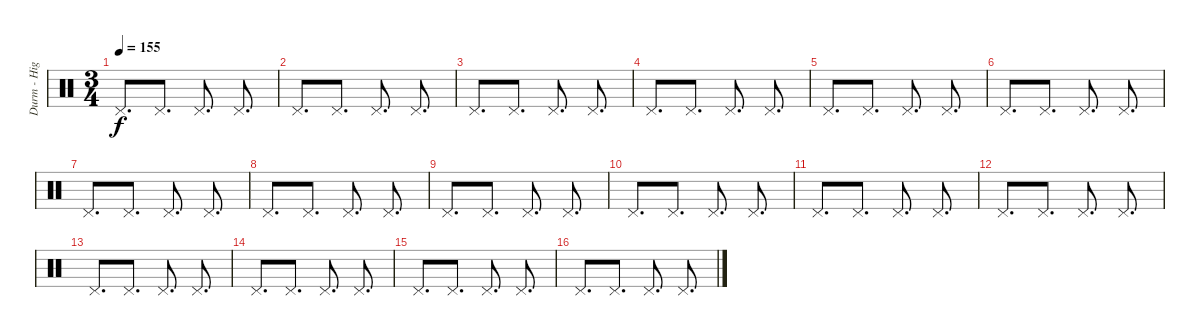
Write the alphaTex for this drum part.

\track ("Durm - High Hat" "Durm - Hig") {instrument percussion}
\staff {score}
\articulation defaults
\ts (3 4)
\tempo 155
\clef neutral
\ks c "Pedal Hi-Hat (hit)".8{d dy f} "Pedal Hi-Hat (hit)".8{d} "Pedal Hi-Hat (hit)".8{d} "Pedal Hi-Hat (hit)".8{d}
|
"Pedal Hi-Hat (hit)".8{d} "Pedal Hi-Hat (hit)".8{d} "Pedal Hi-Hat (hit)".8{d} "Pedal Hi-Hat (hit)".8{d} |
"Pedal Hi-Hat (hit)".8{d} "Pedal Hi-Hat (hit)".8{d} "Pedal Hi-Hat (hit)".8{d} "Pedal Hi-Hat (hit)".8{d} |
"Pedal Hi-Hat (hit)".8{d} "Pedal Hi-Hat (hit)".8{d} "Pedal Hi-Hat (hit)".8{d} "Pedal Hi-Hat (hit)".8{d} |
"Pedal Hi-Hat (hit)".8{d} "Pedal Hi-Hat (hit)".8{d} "Pedal Hi-Hat (hit)".8{d} "Pedal Hi-Hat (hit)".8{d} |
"Pedal Hi-Hat (hit)".8{d} "Pedal Hi-Hat (hit)".8{d} "Pedal Hi-Hat (hit)".8{d} "Pedal Hi-Hat (hit)".8{d} |
"Pedal Hi-Hat (hit)".8{d} "Pedal Hi-Hat (hit)".8{d} "Pedal Hi-Hat (hit)".8{d} "Pedal Hi-Hat (hit)".8{d} |
"Pedal Hi-Hat (hit)".8{d} "Pedal Hi-Hat (hit)".8{d} "Pedal Hi-Hat (hit)".8{d} "Pedal Hi-Hat (hit)".8{d} |
"Pedal Hi-Hat (hit)".8{d} "Pedal Hi-Hat (hit)".8{d} "Pedal Hi-Hat (hit)".8{d} "Pedal Hi-Hat (hit)".8{d} |
"Pedal Hi-Hat (hit)".8{d} "Pedal Hi-Hat (hit)".8{d} "Pedal Hi-Hat (hit)".8{d} "Pedal Hi-Hat (hit)".8{d} |
"Pedal Hi-Hat (hit)".8{d} "Pedal Hi-Hat (hit)".8{d} "Pedal Hi-Hat (hit)".8{d} "Pedal Hi-Hat (hit)".8{d} |
"Pedal Hi-Hat (hit)".8{d} "Pedal Hi-Hat (hit)".8{d} "Pedal Hi-Hat (hit)".8{d} "Pedal Hi-Hat (hit)".8{d} |
"Pedal Hi-Hat (hit)".8{d} "Pedal Hi-Hat (hit)".8{d} "Pedal Hi-Hat (hit)".8{d} "Pedal Hi-Hat (hit)".8{d} |
"Pedal Hi-Hat (hit)".8{d} "Pedal Hi-Hat (hit)".8{d} "Pedal Hi-Hat (hit)".8{d} "Pedal Hi-Hat (hit)".8{d} |
"Pedal Hi-Hat (hit)".8{d} "Pedal Hi-Hat (hit)".8{d} "Pedal Hi-Hat (hit)".8{d} "Pedal Hi-Hat (hit)".8{d} |
"Pedal Hi-Hat (hit)".8{d} "Pedal Hi-Hat (hit)".8{d} "Pedal Hi-Hat (hit)".8{d} "Pedal Hi-Hat (hit)".8{d}
